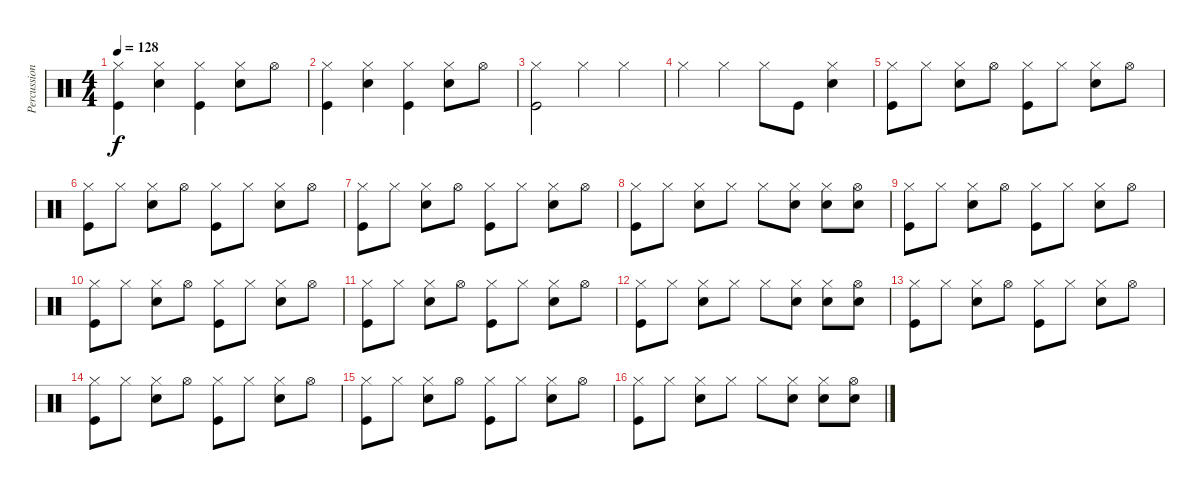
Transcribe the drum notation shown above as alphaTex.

\track ("Percussion" "Percussion") {instrument percussion}
\staff {score}
\articulation defaults
\ts (4 4)
\tempo 128
\clef neutral
\ks c
("Hi-Hat (closed)" "Kick (hit)").4{dy f} ("Hi-Hat (closed)" "Snare (hit) 2").4 ("Hi-Hat (closed)" "Kick (hit)").4 ("Hi-Hat (closed)" "Snare (hit) 2").8 "Hi-Hat (open)".8 |
("Hi-Hat (closed)" "Kick (hit)").4 ("Hi-Hat (closed)" "Snare (hit) 2").4 ("Hi-Hat (closed)" "Kick (hit)").4 ("Hi-Hat (closed)" "Snare (hit) 2").8 "Hi-Hat (open)".8 |
("Hi-Hat (closed)" "Kick (hit)").2 "Hi-Hat (closed)".4 "Hi-Hat (closed)".4 |
"Hi-Hat (closed)".4 "Hi-Hat (closed)".4 "Hi-Hat (closed)".8 "Kick (hit)".8 ("Hi-Hat (closed)" "Snare (hit) 2").4 |
("Hi-Hat (closed)" "Kick (hit)").8 "Hi-Hat (closed)".8 ("Hi-Hat (closed)" "Snare (hit) 2").8 "Hi-Hat (open)".8 ("Hi-Hat (closed)" "Kick (hit)").8 "Hi-Hat (closed)".8 ("Hi-Hat (closed)" "Snare (hit) 2").8 "Hi-Hat (open)".8 |
("Hi-Hat (closed)" "Kick (hit)").8 "Hi-Hat (closed)".8 ("Hi-Hat (closed)" "Snare (hit) 2").8 "Hi-Hat (open)".8 ("Hi-Hat (closed)" "Kick (hit)").8 "Hi-Hat (closed)".8 ("Hi-Hat (closed)" "Snare (hit) 2").8 "Hi-Hat (open)".8 |
("Hi-Hat (closed)" "Kick (hit)").8 "Hi-Hat (closed)".8 ("Hi-Hat (closed)" "Snare (hit) 2").8 "Hi-Hat (open)".8 ("Hi-Hat (closed)" "Kick (hit)").8 "Hi-Hat (closed)".8 ("Hi-Hat (closed)" "Snare (hit) 2").8 "Hi-Hat (open)".8 |
("Hi-Hat (closed)" "Kick (hit)").8 "Hi-Hat (closed)".8 ("Hi-Hat (closed)" "Snare (hit) 2").8 "Hi-Hat (closed)".8 "Hi-Hat (closed)".8 ("Hi-Hat (closed)" "Snare (hit) 2").8 ("Hi-Hat (closed)" "Snare (hit) 2").8 ("Hi-Hat (open)" "Snare (hit) 2").8 |
("Hi-Hat (closed)" "Kick (hit)").8 "Hi-Hat (closed)".8 ("Hi-Hat (closed)" "Snare (hit) 2").8 "Hi-Hat (open)".8 ("Hi-Hat (closed)" "Kick (hit)").8 "Hi-Hat (closed)".8 ("Hi-Hat (closed)" "Snare (hit) 2").8 "Hi-Hat (open)".8 |
("Hi-Hat (closed)" "Kick (hit)").8 "Hi-Hat (closed)".8 ("Hi-Hat (closed)" "Snare (hit) 2").8 "Hi-Hat (open)".8 ("Hi-Hat (closed)" "Kick (hit)").8 "Hi-Hat (closed)".8 ("Hi-Hat (closed)" "Snare (hit) 2").8 "Hi-Hat (open)".8 |
("Hi-Hat (closed)" "Kick (hit)").8 "Hi-Hat (closed)".8 ("Hi-Hat (closed)" "Snare (hit) 2").8 "Hi-Hat (open)".8 ("Hi-Hat (closed)" "Kick (hit)").8 "Hi-Hat (closed)".8 ("Hi-Hat (closed)" "Snare (hit) 2").8 "Hi-Hat (open)".8 |
("Hi-Hat (closed)" "Kick (hit)").8 "Hi-Hat (closed)".8 ("Hi-Hat (closed)" "Snare (hit) 2").8 "Hi-Hat (closed)".8 "Hi-Hat (closed)".8 ("Hi-Hat (closed)" "Snare (hit) 2").8 ("Hi-Hat (closed)" "Snare (hit) 2").8 ("Hi-Hat (open)" "Snare (hit) 2").8 |
("Hi-Hat (closed)" "Kick (hit)").8 "Hi-Hat (closed)".8 ("Hi-Hat (closed)" "Snare (hit) 2").8 "Hi-Hat (open)".8 ("Hi-Hat (closed)" "Kick (hit)").8 "Hi-Hat (closed)".8 ("Hi-Hat (closed)" "Snare (hit) 2").8 "Hi-Hat (open)".8 |
("Hi-Hat (closed)" "Kick (hit)").8 "Hi-Hat (closed)".8 ("Hi-Hat (closed)" "Snare (hit) 2").8 "Hi-Hat (open)".8 ("Hi-Hat (closed)" "Kick (hit)").8 "Hi-Hat (closed)".8 ("Hi-Hat (closed)" "Snare (hit) 2").8 "Hi-Hat (open)".8 |
("Hi-Hat (closed)" "Kick (hit)").8 "Hi-Hat (closed)".8 ("Hi-Hat (closed)" "Snare (hit) 2").8 "Hi-Hat (open)".8 ("Hi-Hat (closed)" "Kick (hit)").8 "Hi-Hat (closed)".8 ("Hi-Hat (closed)" "Snare (hit) 2").8 "Hi-Hat (open)".8 |
("Hi-Hat (closed)" "Kick (hit)").8 "Hi-Hat (closed)".8 ("Hi-Hat (closed)" "Snare (hit) 2").8 "Hi-Hat (closed)".8 "Hi-Hat (closed)".8 ("Hi-Hat (closed)" "Snare (hit) 2").8 ("Hi-Hat (closed)" "Snare (hit) 2").8 ("Hi-Hat (open)" "Snare (hit) 2").8
